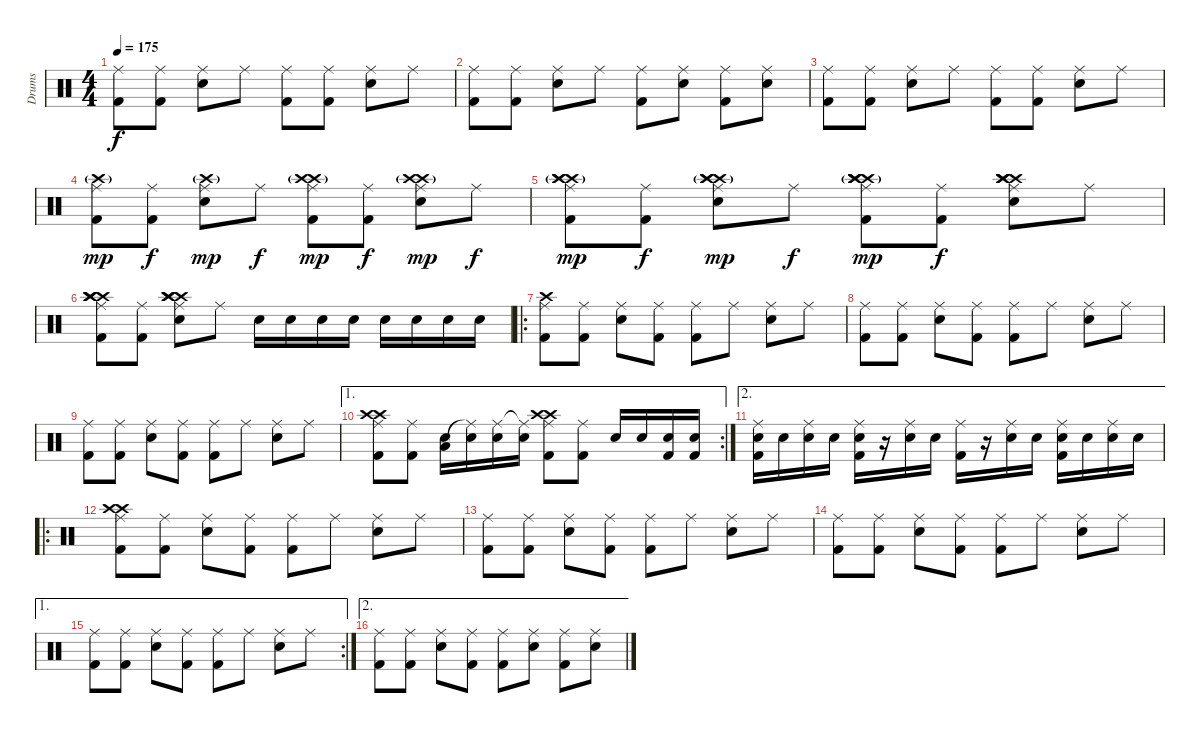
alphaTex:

\track ("Drums" "Drums") {instrument percussion}
\staff {score}
\articulation defaults
\ts (4 4)
\tempo 175
\clef neutral
\ks c
("Ride (middle)" "Kick (hit) 2").8{dy f} ("Ride (middle)" "Kick (hit) 2").8 ("Ride (middle)" "Snare (hit) 2").8 "Ride (middle)".8 ("Ride (middle)" "Kick (hit) 2").8 ("Ride (middle)" "Kick (hit) 2").8 ("Ride (middle)" "Snare (hit) 2").8 "Ride (middle)".8 |
("Ride (middle)" "Kick (hit) 2").8 ("Ride (middle)" "Kick (hit) 2").8 ("Ride (middle)" "Snare (hit) 2").8 "Ride (middle)".8 ("Ride (middle)" "Kick (hit) 2").8 ("Ride (middle)" "Snare (hit) 2").8 ("Ride (middle)" "Kick (hit) 2").8 ("Ride (middle)" "Snare (hit) 2").8 |
("Ride (middle)" "Kick (hit) 2").8 ("Ride (middle)" "Kick (hit) 2").8 ("Ride (middle)" "Snare (hit) 2").8 "Ride (middle)".8 ("Ride (middle)" "Kick (hit) 2").8 ("Ride (middle)" "Kick (hit) 2").8 ("Ride (middle)" "Snare (hit) 2").8 "Ride (middle)".8 |
("Crash high (hit)"{g} "Ride (middle)" "Kick (hit) 2").8{dy mp} ("Ride (middle)" "Kick (hit) 2").8{dy f} ("Crash high (hit)"{g} "Ride (middle)" "Snare (hit) 2").8{dy mp} "Ride (middle)".8{dy f} ("Crash high (hit)"{g} "Crash high (hit)"{g} "Ride (middle)" "Kick (hit) 2").8{dy mp} ("Ride (middle)" "Kick (hit) 2").8{dy f} ("Crash high (hit)" "Crash high (hit)"{g} "Ride (middle)" "Snare (hit) 2").8{dy mp} "Ride (middle)".8{dy f} |
("Crash high (hit)" "Crash high (hit)"{g} "Ride (middle)" "Crash high (hit)"{g} "Kick (hit) 2").8{dy mp} ("Ride (middle)" "Kick (hit) 2").8{dy f} ("Crash high (hit)" "Crash high (hit)" "Ride (middle)" "Crash high (hit)"{g} "Snare (hit) 2").8{dy mp} "Ride (middle)".8{dy f} ("Crash high (hit)" "Crash high (hit)" "Ride (middle)" "Crash high (hit)"{g} "Crash high (hit)" "Kick (hit) 2").8{dy mp} ("Ride (middle)" "Kick (hit) 2").8{dy f} ("Crash high (hit)" "Crash high (hit)" "Ride (middle)" "Crash high (hit)" "Crash high (hit)" "Snare (hit) 2").8 "Ride (middle)".8 |
("Crash high (hit)" "Crash high (hit)" "Ride (middle)" "Crash high (hit)" "Crash high (hit)" "Kick (hit) 2").8 ("Ride (middle)" "Kick (hit) 2").8 ("Crash high (hit)" "Crash high (hit)" "Ride (middle)" "Crash high (hit)" "Crash high (hit)" "Snare (hit) 2").8 "Ride (middle)".8 "Electric Snare (hit)".16 "Electric Snare (hit)".16 "Electric Snare (hit)".16 "Electric Snare (hit)".16 "Snare (hit) 2".16 "Snare (hit) 2".16 "Snare (hit) 2".16 "Snare (hit) 2".16 |
\ro
("Crash high (hit)" "Ride (middle)" "Kick (hit) 2").8 ("Ride (middle)" "Kick (hit) 2").8 ("Ride (middle)" "Snare (hit) 2").8 ("Ride (middle)" "Kick (hit) 2").8 ("Ride (middle)" "Kick (hit) 2").8 "Ride (middle)".8 ("Ride (middle)" "Snare (hit) 2").8 "Ride (middle)".8 |
("Ride (middle)" "Kick (hit) 2").8 ("Ride (middle)" "Kick (hit) 2").8 ("Ride (middle)" "Snare (hit) 2").8 ("Ride (middle)" "Kick (hit) 2").8 ("Ride (middle)" "Kick (hit) 2").8 "Ride (middle)".8 ("Ride (middle)" "Snare (hit) 2").8 "Ride (middle)".8 |
("Ride (middle)" "Kick (hit) 2").8 ("Ride (middle)" "Kick (hit) 2").8 ("Ride (middle)" "Snare (hit) 2").8 ("Ride (middle)" "Kick (hit) 2").8 ("Ride (middle)" "Kick (hit) 2").8 "Ride (middle)".8 ("Ride (middle)" "Snare (hit) 2").8 "Ride (middle)".8 |
\ae 1
\rc 2
("Crash high (hit)" "Crash high (hit)" "Ride (middle)" "Kick (hit) 2").8 ("Ride (middle)" "Kick (hit) 2").8 ("Low Tom (hit)" "Snare (hit) 2").16 ("Ride (middle)"{t} "Snare (hit) 2").16 ("Ride (middle)" "Snare (hit) 2").16 ("Ride (middle)"{t} "Snare (hit) 2").16 ("Crash high (hit)" "Crash high (hit)" "Ride (middle)" "Kick (hit) 2").8 ("Ride (middle)" "Kick (hit) 2").8 "Snare (hit) 2".16 "Snare (hit) 2".16 ("Snare (hit) 2" "Kick (hit) 2").16 ("Snare (hit) 2" "Kick (hit) 2").16 |
\ae 2
("Ride (middle)" "Kick (hit) 2" "Snare (hit) 2").16 "Snare (hit) 2".16 ("Ride (middle)" "Snare (hit) 2").16 "Snare (hit) 2".16 ("Ride (middle)" "Kick (hit) 2" "Snare (hit) 2").16 r.16 ("Ride (middle)" "Snare (hit) 2").16 "Snare (hit) 2".16 ("Ride (middle)" "Kick (hit) 2").16 r.16 ("Ride (middle)" "Snare (hit) 2").16 "Snare (hit) 2".16 ("Ride (middle)" "Kick (hit) 2" "Snare (hit) 2").16 "Snare (hit) 2".16 ("Ride (middle)" "Snare (hit) 2").16 "Snare (hit) 2".16 |
\ro
("Crash high (hit)" "Crash high (hit)" "Ride (middle)" "Kick (hit) 2").8 ("Ride (middle)" "Kick (hit) 2").8 ("Ride (middle)" "Snare (hit) 2").8 ("Ride (middle)" "Kick (hit) 2").8 ("Ride (middle)" "Kick (hit) 2").8 "Ride (middle)".8 ("Ride (middle)" "Snare (hit) 2").8 "Ride (middle)".8 |
("Ride (middle)" "Kick (hit) 2").8 ("Ride (middle)" "Kick (hit) 2").8 ("Ride (middle)" "Snare (hit) 2").8 ("Ride (middle)" "Kick (hit) 2").8 ("Ride (middle)" "Kick (hit) 2").8 "Ride (middle)".8 ("Ride (middle)" "Snare (hit) 2").8 "Ride (middle)".8 |
("Ride (middle)" "Kick (hit) 2").8 ("Ride (middle)" "Kick (hit) 2").8 ("Ride (middle)" "Snare (hit) 2").8 ("Ride (middle)" "Kick (hit) 2").8 ("Ride (middle)" "Kick (hit) 2").8 "Ride (middle)".8 ("Ride (middle)" "Snare (hit) 2").8 "Ride (middle)".8 |
\ae 1
\rc 2
("Ride (middle)" "Kick (hit) 2").8 ("Ride (middle)" "Kick (hit) 2").8 ("Ride (middle)" "Snare (hit) 2").8 ("Ride (middle)" "Kick (hit) 2").8 ("Ride (middle)" "Kick (hit) 2").8 "Ride (middle)".8 ("Ride (middle)" "Snare (hit) 2").8 "Ride (middle)".8 |
\ae 2
("Ride (middle)" "Kick (hit) 2").8 ("Ride (middle)" "Kick (hit) 2").8 ("Ride (middle)" "Snare (hit) 2").8 ("Ride (middle)" "Kick (hit) 2").8 ("Ride (middle)" "Kick (hit) 2").8 ("Ride (middle)" "Snare (hit) 2").8 ("Ride (middle)" "Kick (hit) 2").8 ("Ride (middle)" "Snare (hit) 2").8
